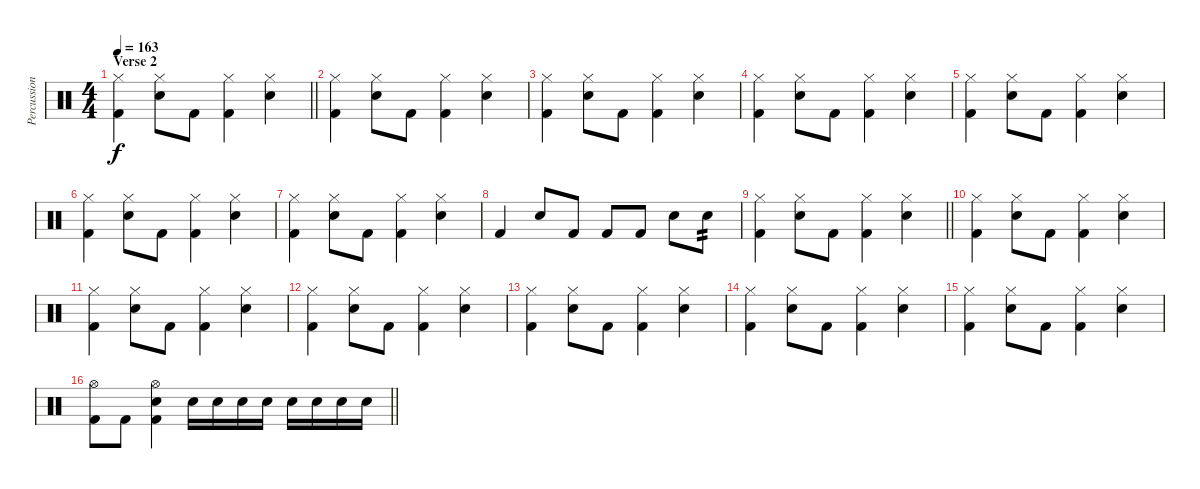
\track ("Percussion" "Percussion") {instrument percussion}
\staff {score}
\articulation defaults
\ts (4 4)
\section ("" "Verse 2")
\tempo 163
\clef neutral
\barLineRight lightlight
\ks c
("Hi-Hat (closed)" "Kick (hit) 2").4{dy f} ("Hi-Hat (closed)" "Electric Snare (hit)").8 "Kick (hit) 2".8 ("Hi-Hat (closed)" "Kick (hit) 2").4 ("Hi-Hat (closed)" "Electric Snare (hit)").4 |
("Hi-Hat (closed)" "Kick (hit) 2").4 ("Hi-Hat (closed)" "Electric Snare (hit)").8 "Kick (hit) 2".8 ("Hi-Hat (closed)" "Kick (hit) 2").4 ("Hi-Hat (closed)" "Electric Snare (hit)").4 |
("Hi-Hat (closed)" "Kick (hit) 2").4 ("Hi-Hat (closed)" "Electric Snare (hit)").8 "Kick (hit) 2".8 ("Hi-Hat (closed)" "Kick (hit) 2").4 ("Hi-Hat (closed)" "Electric Snare (hit)").4 |
("Hi-Hat (closed)" "Kick (hit) 2").4 ("Hi-Hat (closed)" "Electric Snare (hit)").8 "Kick (hit) 2".8 ("Hi-Hat (closed)" "Kick (hit) 2").4 ("Hi-Hat (closed)" "Electric Snare (hit)").4 |
("Hi-Hat (closed)" "Kick (hit) 2").4 ("Hi-Hat (closed)" "Electric Snare (hit)").8 "Kick (hit) 2".8 ("Hi-Hat (closed)" "Kick (hit) 2").4 ("Hi-Hat (closed)" "Electric Snare (hit)").4 |
("Hi-Hat (closed)" "Kick (hit) 2").4 ("Hi-Hat (closed)" "Electric Snare (hit)").8 "Kick (hit) 2".8 ("Hi-Hat (closed)" "Kick (hit) 2").4 ("Hi-Hat (closed)" "Electric Snare (hit)").4 |
("Hi-Hat (closed)" "Kick (hit) 2").4 ("Hi-Hat (closed)" "Electric Snare (hit)").8 "Kick (hit) 2".8 ("Hi-Hat (closed)" "Kick (hit) 2").4 ("Hi-Hat (closed)" "Electric Snare (hit)").4 |
"Kick (hit) 2".4 "Electric Snare (hit)".8 "Kick (hit) 2".8 "Kick (hit) 2".8 "Kick (hit) 2".8 "Electric Snare (hit)".8 "Electric Snare (hit)".8{tp 2} |
\barLineRight lightlight
("Hi-Hat (closed)" "Kick (hit) 2").4 ("Hi-Hat (closed)" "Electric Snare (hit)").8 "Kick (hit) 2".8 ("Hi-Hat (closed)" "Kick (hit) 2").4 ("Hi-Hat (closed)" "Electric Snare (hit)").4 |
("Hi-Hat (closed)" "Kick (hit) 2").4 ("Hi-Hat (closed)" "Electric Snare (hit)").8 "Kick (hit) 2".8 ("Hi-Hat (closed)" "Kick (hit) 2").4 ("Hi-Hat (closed)" "Electric Snare (hit)").4 |
("Hi-Hat (closed)" "Kick (hit) 2").4 ("Hi-Hat (closed)" "Electric Snare (hit)").8 "Kick (hit) 2".8 ("Hi-Hat (closed)" "Kick (hit) 2").4 ("Hi-Hat (closed)" "Electric Snare (hit)").4 |
("Hi-Hat (closed)" "Kick (hit) 2").4 ("Hi-Hat (closed)" "Electric Snare (hit)").8 "Kick (hit) 2".8 ("Hi-Hat (closed)" "Kick (hit) 2").4 ("Hi-Hat (closed)" "Electric Snare (hit)").4 |
("Hi-Hat (closed)" "Kick (hit) 2").4 ("Hi-Hat (closed)" "Electric Snare (hit)").8 "Kick (hit) 2".8 ("Hi-Hat (closed)" "Kick (hit) 2").4 ("Hi-Hat (closed)" "Electric Snare (hit)").4 |
("Hi-Hat (closed)" "Kick (hit) 2").4 ("Hi-Hat (closed)" "Electric Snare (hit)").8 "Kick (hit) 2".8 ("Hi-Hat (closed)" "Kick (hit) 2").4 ("Hi-Hat (closed)" "Electric Snare (hit)").4 |
("Hi-Hat (closed)" "Kick (hit) 2").4 ("Hi-Hat (closed)" "Electric Snare (hit)").8 "Kick (hit) 2".8 ("Hi-Hat (closed)" "Kick (hit) 2").4 ("Hi-Hat (closed)" "Electric Snare (hit)").4 |
\barLineRight lightlight
("Hi-Hat (open)" "Kick (hit) 2").8 "Kick (hit) 2".8 ("Hi-Hat (open)" "Electric Snare (hit)" "Kick (hit) 2").4 "Electric Snare (hit)".16 "Electric Snare (hit)".16 "Electric Snare (hit)".16 "Electric Snare (hit)".16 "Electric Snare (hit)".16 "Electric Snare (hit)".16 "Electric Snare (hit)".16 "Electric Snare (hit)".16
